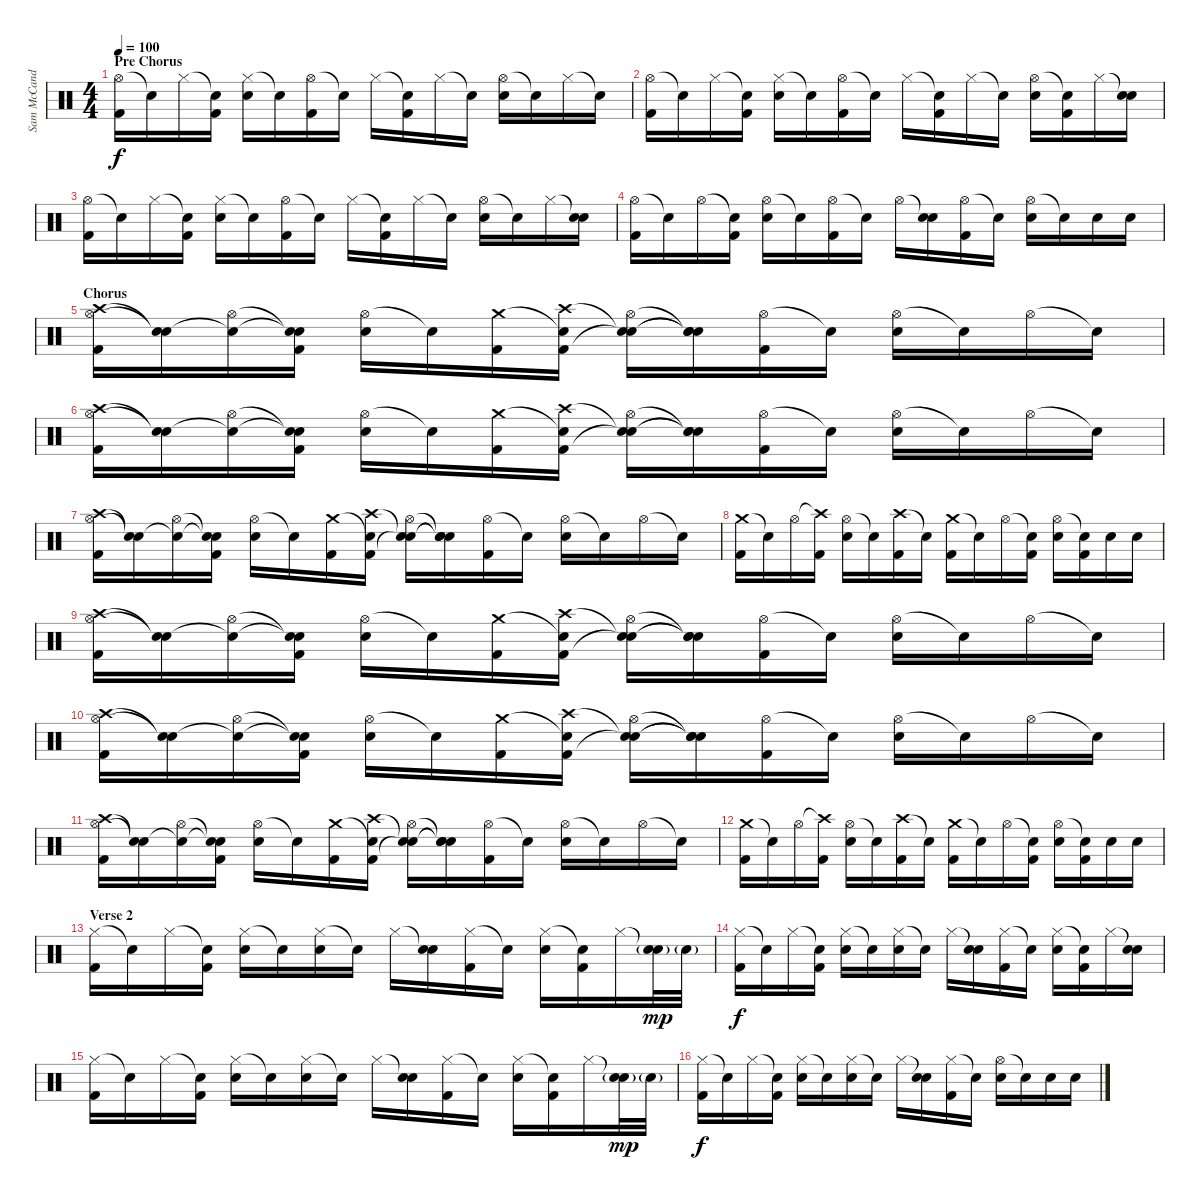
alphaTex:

\track ("Sam McCandless (Drums)" "Sam McCand") {instrument percussion}
\staff {score}
\articulation defaults
\ts (4 4)
\section ("" "Pre Chorus")
\tempo 100
\clef neutral
\ks c
("Hi-Hat (open)" "Kick (hit) 2").16{dy f} "Snare (hit)"{t}.16 "Hi-Hat (closed)".16 ("Snare (hit)"{t} "Kick (hit) 2").16 ("Hi-Hat (closed)" "Electric Snare (hit)").16 "Snare (hit)"{t}.16 ("Hi-Hat (open)" "Kick (hit) 2").16 "Snare (hit)"{t}.16 "Hi-Hat (closed)".16 ("Snare (hit)"{t} "Kick (hit) 2").16 "Hi-Hat (closed)".16 "Snare (hit)"{t}.16 ("Hi-Hat (open)" "Electric Snare (hit)").16 "Snare (hit)"{t}.16 "Hi-Hat (closed)".16 "Snare (hit)"{t}.16 |
("Hi-Hat (open)" "Kick (hit) 2").16 "Snare (hit)"{t}.16 "Hi-Hat (closed)".16 ("Snare (hit)"{t} "Kick (hit) 2").16 ("Hi-Hat (closed)" "Electric Snare (hit)").16 "Snare (hit)"{t}.16 ("Hi-Hat (open)" "Kick (hit) 2").16 "Snare (hit)"{t}.16 "Hi-Hat (closed)".16 ("Snare (hit)"{t} "Kick (hit) 2").16 "Hi-Hat (closed)".16 "Snare (hit)"{t}.16 ("Hi-Hat (open)" "Electric Snare (hit)").16 ("Snare (hit)"{t} "Kick (hit) 2").16 "Hi-Hat (closed)".16 ("Snare (hit)"{t} "Electric Snare (hit)").16 |
("Hi-Hat (open)" "Kick (hit) 2").16 "Snare (hit)"{t}.16 "Hi-Hat (closed)".16 ("Snare (hit)"{t} "Kick (hit) 2").16 ("Hi-Hat (closed)" "Electric Snare (hit)").16 "Snare (hit)"{t}.16 ("Hi-Hat (open)" "Kick (hit) 2").16 "Snare (hit)"{t}.16 "Hi-Hat (closed)".16 ("Snare (hit)"{t} "Kick (hit) 2").16 "Hi-Hat (closed)".16 "Snare (hit)"{t}.16 ("Hi-Hat (open)" "Electric Snare (hit)").16 "Snare (hit)"{t}.16 "Hi-Hat (closed)".16 ("Snare (hit)"{t} "Electric Snare (hit)").16 |
("Hi-Hat (open)" "Kick (hit) 2").16 "Snare (hit)"{t}.16 "Hi-Hat (open)".16 ("Snare (hit)"{t} "Kick (hit) 2").16 ("Hi-Hat (open)" "Electric Snare (hit)").16 "Snare (hit)"{t}.16 ("Hi-Hat (open)" "Kick (hit) 2").16 "Snare (hit)"{t}.16 "Hi-Hat (open)".16 ("Snare (hit)"{t} "Electric Snare (hit)").16 ("Hi-Hat (open)" "Kick (hit) 2").16 "Snare (hit)"{t}.16 ("Hi-Hat (open)" "Electric Snare (hit)").16 "Snare (hit)"{t}.16 "Electric Snare (hit)".16 "Electric Snare (hit)".16 |
\section ("" "Chorus")
("Hi-Hat (open)" "Crash high (hit)" "Kick (hit) 2").16 ("Snare (hit)"{t} "Snare (hit)"{t}).16 ("Hi-Hat (open)" "Snare (hit)"{t}).16 ("Snare (hit)"{t} "Snare (hit)"{t} "Kick (hit) 2").16 ("Hi-Hat (open)" "Electric Snare (hit)").16 "Snare (hit)"{t}.16 ("Crash medium (hit)" "Kick (hit) 2").16 ("Snare (hit)"{t} "Crash high (hit)" "Kick (hit) 2").16 ("Hi-Hat (open)" "Snare (hit)"{t} "Snare (hit)"{t}).16 ("Snare (hit)"{t} "Snare (hit)"{t} "Snare (hit)"{t}).16 ("Hi-Hat (open)" "Kick (hit) 2").16 "Snare (hit)"{t}.16 ("Hi-Hat (open)" "Electric Snare (hit)").16 "Snare (hit)"{t}.16 "Hi-Hat (open)".16 "Snare (hit)"{t}.16 |
("Hi-Hat (open)" "Crash high (hit)" "Kick (hit) 2").16 ("Snare (hit)"{t} "Snare (hit)"{t}).16 ("Hi-Hat (open)" "Snare (hit)"{t}).16 ("Snare (hit)"{t} "Snare (hit)"{t} "Kick (hit) 2").16 ("Hi-Hat (open)" "Electric Snare (hit)").16 "Snare (hit)"{t}.16 ("Crash medium (hit)" "Kick (hit) 2").16 ("Snare (hit)"{t} "Crash high (hit)" "Kick (hit) 2").16 ("Hi-Hat (open)" "Snare (hit)"{t} "Snare (hit)"{t}).16 ("Snare (hit)"{t} "Snare (hit)"{t} "Snare (hit)"{t}).16 ("Hi-Hat (open)" "Kick (hit) 2").16 "Snare (hit)"{t}.16 ("Hi-Hat (open)" "Electric Snare (hit)").16 "Snare (hit)"{t}.16 "Hi-Hat (open)".16 "Snare (hit)"{t}.16 |
("Hi-Hat (open)" "Crash high (hit)" "Kick (hit) 2").16 ("Snare (hit)"{t} "Snare (hit)"{t}).16 ("Hi-Hat (open)" "Snare (hit)"{t}).16 ("Snare (hit)"{t} "Snare (hit)"{t} "Kick (hit) 2").16 ("Hi-Hat (open)" "Electric Snare (hit)").16 "Snare (hit)"{t}.16 ("Crash medium (hit)" "Kick (hit) 2").16 ("Snare (hit)"{t} "Crash high (hit)" "Kick (hit) 2").16 ("Hi-Hat (open)" "Snare (hit)"{t} "Snare (hit)"{t}).16 ("Snare (hit)"{t} "Snare (hit)"{t} "Snare (hit)"{t}).16 ("Hi-Hat (open)" "Kick (hit) 2").16 "Snare (hit)"{t}.16 ("Hi-Hat (open)" "Electric Snare (hit)").16 "Snare (hit)"{t}.16 "Hi-Hat (open)".16 "Snare (hit)"{t}.16 |
("Crash medium (hit)" "Kick (hit) 2").16 "Snare (hit)"{t}.16 "Hi-Hat (open)".16 ("Crash high (hit)"{t} "Kick (hit) 2").16 ("Hi-Hat (open)" "Electric Snare (hit)").16 "Snare (hit)"{t}.16 ("Crash high (hit)" "Kick (hit) 2").16 "Snare (hit)"{t}.16 ("Crash medium (hit)" "Kick (hit) 2").16 "Snare (hit)"{t}.16 "Hi-Hat (open)".16 ("Snare (hit)"{t} "Kick (hit) 2").16 ("Hi-Hat (open)" "Electric Snare (hit)").16 ("Snare (hit)"{t} "Kick (hit) 2").16 "Electric Snare (hit)".16 "Electric Snare (hit)".16 |
("Hi-Hat (open)" "Crash high (hit)" "Kick (hit) 2").16 ("Snare (hit)"{t} "Snare (hit)"{t}).16 ("Hi-Hat (open)" "Snare (hit)"{t}).16 ("Snare (hit)"{t} "Snare (hit)"{t} "Kick (hit) 2").16 ("Hi-Hat (open)" "Electric Snare (hit)").16 "Snare (hit)"{t}.16 ("Crash medium (hit)" "Kick (hit) 2").16 ("Snare (hit)"{t} "Crash high (hit)" "Kick (hit) 2").16 ("Hi-Hat (open)" "Snare (hit)"{t} "Snare (hit)"{t}).16 ("Snare (hit)"{t} "Snare (hit)"{t} "Snare (hit)"{t}).16 ("Hi-Hat (open)" "Kick (hit) 2").16 "Snare (hit)"{t}.16 ("Hi-Hat (open)" "Electric Snare (hit)").16 "Snare (hit)"{t}.16 "Hi-Hat (open)".16 "Snare (hit)"{t}.16 |
("Hi-Hat (open)" "Crash high (hit)" "Kick (hit) 2").16 ("Snare (hit)"{t} "Snare (hit)"{t}).16 ("Hi-Hat (open)" "Snare (hit)"{t}).16 ("Snare (hit)"{t} "Snare (hit)"{t} "Kick (hit) 2").16 ("Hi-Hat (open)" "Electric Snare (hit)").16 "Snare (hit)"{t}.16 ("Crash medium (hit)" "Kick (hit) 2").16 ("Snare (hit)"{t} "Crash high (hit)" "Kick (hit) 2").16 ("Hi-Hat (open)" "Snare (hit)"{t} "Snare (hit)"{t}).16 ("Snare (hit)"{t} "Snare (hit)"{t} "Snare (hit)"{t}).16 ("Hi-Hat (open)" "Kick (hit) 2").16 "Snare (hit)"{t}.16 ("Hi-Hat (open)" "Electric Snare (hit)").16 "Snare (hit)"{t}.16 "Hi-Hat (open)".16 "Snare (hit)"{t}.16 |
("Hi-Hat (open)" "Crash high (hit)" "Kick (hit) 2").16 ("Snare (hit)"{t} "Snare (hit)"{t}).16 ("Hi-Hat (open)" "Snare (hit)"{t}).16 ("Snare (hit)"{t} "Snare (hit)"{t} "Kick (hit) 2").16 ("Hi-Hat (open)" "Electric Snare (hit)").16 "Snare (hit)"{t}.16 ("Crash medium (hit)" "Kick (hit) 2").16 ("Snare (hit)"{t} "Crash high (hit)" "Kick (hit) 2").16 ("Hi-Hat (open)" "Snare (hit)"{t} "Snare (hit)"{t}).16 ("Snare (hit)"{t} "Snare (hit)"{t} "Snare (hit)"{t}).16 ("Hi-Hat (open)" "Kick (hit) 2").16 "Snare (hit)"{t}.16 ("Hi-Hat (open)" "Electric Snare (hit)").16 "Snare (hit)"{t}.16 "Hi-Hat (open)".16 "Snare (hit)"{t}.16 |
("Crash medium (hit)" "Kick (hit) 2").16 "Snare (hit)"{t}.16 "Hi-Hat (open)".16 ("Crash high (hit)"{t} "Kick (hit) 2").16 ("Hi-Hat (open)" "Electric Snare (hit)").16 "Snare (hit)"{t}.16 ("Crash high (hit)" "Kick (hit) 2").16 "Snare (hit)"{t}.16 ("Crash medium (hit)" "Kick (hit) 2").16 "Snare (hit)"{t}.16 "Hi-Hat (open)".16 ("Snare (hit)"{t} "Kick (hit) 2").16 ("Hi-Hat (open)" "Electric Snare (hit)").16 ("Snare (hit)"{t} "Kick (hit) 2").16 "Electric Snare (hit)".16 "Electric Snare (hit)".16 |
\section ("" "Verse 2")
("Hi-Hat (closed)" "Kick (hit) 2").16 "Snare (hit)"{t}.16 "Hi-Hat (closed)".16 ("Snare (hit)"{t} "Kick (hit) 2").16 ("Hi-Hat (closed)" "Electric Snare (hit)").16 "Snare (hit)"{t}.16 ("Hi-Hat (closed)" "Electric Snare (hit)").16 "Snare (hit)"{t}.16 "Hi-Hat (closed)".16 ("Snare (hit)"{t} "Electric Snare (hit)").16 ("Hi-Hat (closed)" "Kick (hit) 2").16 "Snare (hit)"{t}.16 ("Hi-Hat (closed)" "Electric Snare (hit)").16 ("Snare (hit)"{t} "Kick (hit) 2").16 "Hi-Hat (closed)".16 ("Snare (hit)"{t} "Electric Snare (hit)"{g}).32{dy mp} "Electric Snare (hit)"{g}.32 |
("Hi-Hat (closed)" "Kick (hit) 2").16{dy f} "Snare (hit)"{t}.16 "Hi-Hat (closed)".16 ("Snare (hit)"{t} "Kick (hit) 2").16 ("Hi-Hat (closed)" "Electric Snare (hit)").16 "Snare (hit)"{t}.16 ("Hi-Hat (closed)" "Electric Snare (hit)").16 "Snare (hit)"{t}.16 "Hi-Hat (closed)".16 ("Snare (hit)"{t} "Electric Snare (hit)").16 ("Hi-Hat (closed)" "Kick (hit) 2").16 "Snare (hit)"{t}.16 ("Hi-Hat (closed)" "Electric Snare (hit)").16 ("Snare (hit)"{t} "Kick (hit) 2").16 "Hi-Hat (closed)".16 ("Snare (hit)"{t} "Electric Snare (hit)").16 |
("Hi-Hat (closed)" "Kick (hit) 2").16 "Snare (hit)"{t}.16 "Hi-Hat (closed)".16 ("Snare (hit)"{t} "Kick (hit) 2").16 ("Hi-Hat (closed)" "Electric Snare (hit)").16 "Snare (hit)"{t}.16 ("Hi-Hat (closed)" "Electric Snare (hit)").16 "Snare (hit)"{t}.16 "Hi-Hat (closed)".16 ("Snare (hit)"{t} "Electric Snare (hit)").16 ("Hi-Hat (closed)" "Kick (hit) 2").16 "Snare (hit)"{t}.16 ("Hi-Hat (closed)" "Electric Snare (hit)").16 ("Snare (hit)"{t} "Kick (hit) 2").16 "Hi-Hat (closed)".16 ("Snare (hit)"{t} "Electric Snare (hit)"{g}).32{dy mp} "Electric Snare (hit)"{g}.32 |
("Hi-Hat (closed)" "Kick (hit) 2").16{dy f} "Snare (hit)"{t}.16 "Hi-Hat (closed)".16 ("Snare (hit)"{t} "Kick (hit) 2").16 ("Hi-Hat (closed)" "Electric Snare (hit)").16 "Snare (hit)"{t}.16 ("Hi-Hat (closed)" "Electric Snare (hit)").16 "Snare (hit)"{t}.16 "Hi-Hat (closed)".16 ("Snare (hit)"{t} "Electric Snare (hit)").16 ("Hi-Hat (closed)" "Kick (hit) 2").16 "Snare (hit)"{t}.16 ("Hi-Hat (open)" "Electric Snare (hit)").16 "Snare (hit)"{t}.16 "Electric Snare (hit)".16 "Electric Snare (hit)".16
